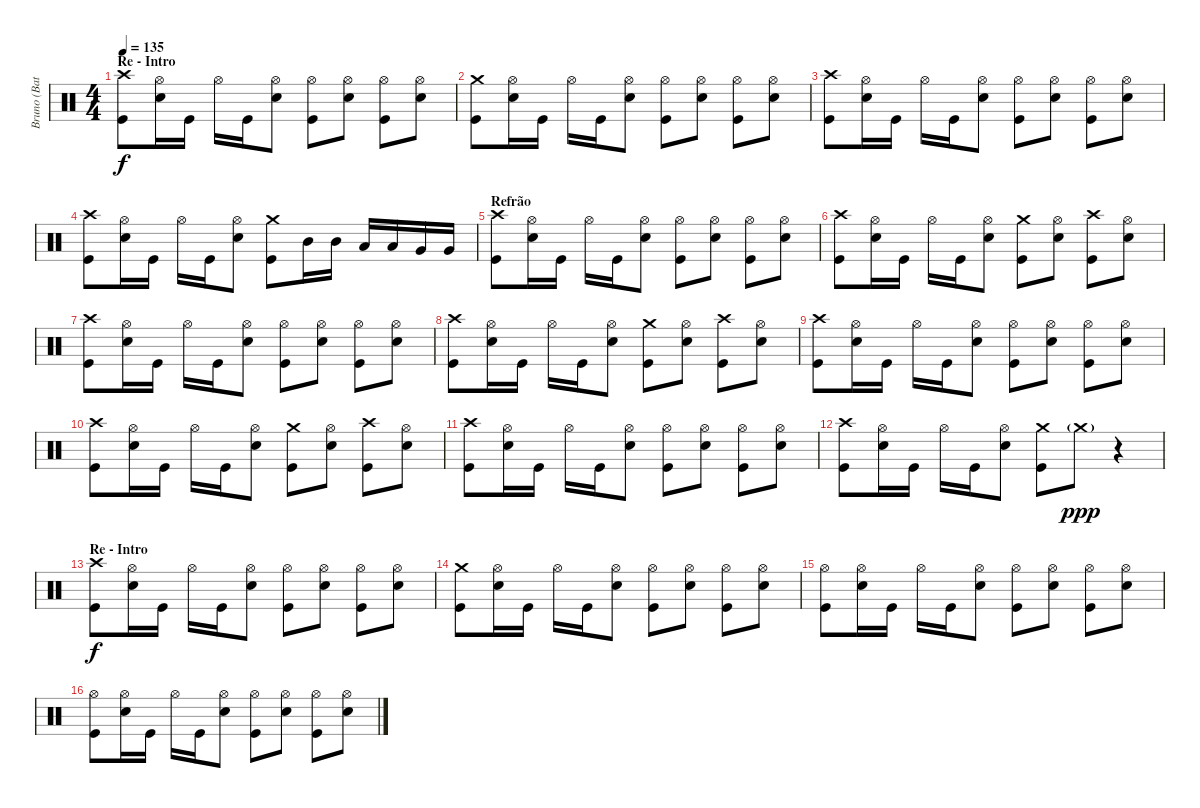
\track ("Bruno (Bateria)" "Bruno (Bat") {instrument percussion}
\staff {score}
\articulation defaults
\ts (4 4)
\section ("" "Re - Intro")
\tempo 135
\clef neutral
\ks c
("Crash high (hit)" "Kick (hit)").8{dy f} ("Hi-Hat (open)" "Electric Snare (hit)").16 "Kick (hit)".16 "Hi-Hat (open)".16 "Kick (hit)".16 ("Hi-Hat (open)" "Electric Snare (hit)").8 ("Hi-Hat (open)" "Kick (hit)").8 ("Hi-Hat (open)" "Electric Snare (hit)").8 ("Hi-Hat (open)" "Kick (hit)").8 ("Hi-Hat (open)" "Electric Snare (hit)").8 |
("Crash medium (hit)" "Kick (hit)").8 ("Hi-Hat (open)" "Electric Snare (hit)").16 "Kick (hit)".16 "Hi-Hat (open)".16 "Kick (hit)".16 ("Hi-Hat (open)" "Electric Snare (hit)").8 ("Hi-Hat (open)" "Kick (hit)").8 ("Hi-Hat (open)" "Electric Snare (hit)").8 ("Hi-Hat (open)" "Kick (hit)").8 ("Hi-Hat (open)" "Electric Snare (hit)").8 |
("Crash high (hit)" "Kick (hit)").8 ("Hi-Hat (open)" "Electric Snare (hit)").16 "Kick (hit)".16 "Hi-Hat (open)".16 "Kick (hit)".16 ("Hi-Hat (open)" "Electric Snare (hit)").8 ("Hi-Hat (open)" "Kick (hit)").8 ("Hi-Hat (open)" "Electric Snare (hit)").8 ("Hi-Hat (open)" "Kick (hit)").8 ("Hi-Hat (open)" "Electric Snare (hit)").8 |
("Crash high (hit)" "Kick (hit)").8 ("Hi-Hat (open)" "Electric Snare (hit)").16 "Kick (hit)".16 "Hi-Hat (open)".16 "Kick (hit)".16 ("Hi-Hat (open)" "Electric Snare (hit)").8 ("Crash medium (hit)" "Kick (hit)").8 "Mid Tom (hit)".16 "Mid Tom (hit)".16 "Low Tom (hit)".16 "Low Tom (hit)".16 "Very Low Tom (hit)".16 "Very Low Tom (hit)".16 |
\section ("" "Refrão")
("Crash high (hit)" "Kick (hit)").8 ("Hi-Hat (open)" "Electric Snare (hit)").16 "Kick (hit)".16 "Hi-Hat (open)".16 "Kick (hit)".16 ("Hi-Hat (open)" "Electric Snare (hit)").8 ("Hi-Hat (open)" "Kick (hit)").8 ("Hi-Hat (open)" "Electric Snare (hit)").8 ("Hi-Hat (open)" "Kick (hit)").8 ("Hi-Hat (open)" "Electric Snare (hit)").8 |
("Crash high (hit)" "Kick (hit)").8 ("Hi-Hat (open)" "Electric Snare (hit)").16 "Kick (hit)".16 "Hi-Hat (open)".16 "Kick (hit)".16 ("Hi-Hat (open)" "Electric Snare (hit)").8 ("Crash medium (hit)" "Kick (hit)").8 ("Hi-Hat (open)" "Electric Snare (hit)").8 ("Crash high (hit)" "Kick (hit)").8 ("Hi-Hat (open)" "Electric Snare (hit)").8 |
("Crash high (hit)" "Kick (hit)").8 ("Hi-Hat (open)" "Electric Snare (hit)").16 "Kick (hit)".16 "Hi-Hat (open)".16 "Kick (hit)".16 ("Hi-Hat (open)" "Electric Snare (hit)").8 ("Hi-Hat (open)" "Kick (hit)").8 ("Hi-Hat (open)" "Electric Snare (hit)").8 ("Hi-Hat (open)" "Kick (hit)").8 ("Hi-Hat (open)" "Electric Snare (hit)").8 |
("Crash high (hit)" "Kick (hit)").8 ("Hi-Hat (open)" "Electric Snare (hit)").16 "Kick (hit)".16 "Hi-Hat (open)".16 "Kick (hit)".16 ("Hi-Hat (open)" "Electric Snare (hit)").8 ("Crash medium (hit)" "Kick (hit)").8 ("Hi-Hat (open)" "Electric Snare (hit)").8 ("Crash high (hit)" "Kick (hit)").8 ("Hi-Hat (open)" "Electric Snare (hit)").8 |
("Crash high (hit)" "Kick (hit)").8 ("Hi-Hat (open)" "Electric Snare (hit)").16 "Kick (hit)".16 "Hi-Hat (open)".16 "Kick (hit)".16 ("Hi-Hat (open)" "Electric Snare (hit)").8 ("Hi-Hat (open)" "Kick (hit)").8 ("Hi-Hat (open)" "Electric Snare (hit)").8 ("Hi-Hat (open)" "Kick (hit)").8 ("Hi-Hat (open)" "Electric Snare (hit)").8 |
("Crash high (hit)" "Kick (hit)").8 ("Hi-Hat (open)" "Electric Snare (hit)").16 "Kick (hit)".16 "Hi-Hat (open)".16 "Kick (hit)".16 ("Hi-Hat (open)" "Electric Snare (hit)").8 ("Crash medium (hit)" "Kick (hit)").8 ("Hi-Hat (open)" "Electric Snare (hit)").8 ("Crash high (hit)" "Kick (hit)").8 ("Hi-Hat (open)" "Electric Snare (hit)").8 |
("Crash high (hit)" "Kick (hit)").8 ("Hi-Hat (open)" "Electric Snare (hit)").16 "Kick (hit)".16 "Hi-Hat (open)".16 "Kick (hit)".16 ("Hi-Hat (open)" "Electric Snare (hit)").8 ("Hi-Hat (open)" "Kick (hit)").8 ("Hi-Hat (open)" "Electric Snare (hit)").8 ("Hi-Hat (open)" "Kick (hit)").8 ("Hi-Hat (open)" "Electric Snare (hit)").8 |
("Crash high (hit)" "Kick (hit)").8 ("Hi-Hat (open)" "Electric Snare (hit)").16 "Kick (hit)".16 "Hi-Hat (open)".16 "Kick (hit)".16 ("Hi-Hat (open)" "Electric Snare (hit)").8 ("Crash medium (hit)" "Kick (hit)").8 "Crash medium (hit)"{g}.8{dy ppp} r.4 |
\section ("" "Re - Intro")
("Crash high (hit)" "Kick (hit)").8{dy f} ("Hi-Hat (open)" "Electric Snare (hit)").16 "Kick (hit)".16 "Hi-Hat (open)".16 "Kick (hit)".16 ("Hi-Hat (open)" "Electric Snare (hit)").8 ("Hi-Hat (open)" "Kick (hit)").8 ("Hi-Hat (open)" "Electric Snare (hit)").8 ("Hi-Hat (open)" "Kick (hit)").8 ("Hi-Hat (open)" "Electric Snare (hit)").8 |
("Crash medium (hit)" "Kick (hit)").8 ("Hi-Hat (open)" "Electric Snare (hit)").16 "Kick (hit)".16 "Hi-Hat (open)".16 "Kick (hit)".16 ("Hi-Hat (open)" "Electric Snare (hit)").8 ("Hi-Hat (open)" "Kick (hit)").8 ("Hi-Hat (open)" "Electric Snare (hit)").8 ("Hi-Hat (open)" "Kick (hit)").8 ("Hi-Hat (open)" "Electric Snare (hit)").8 |
("Hi-Hat (open)" "Kick (hit)").8 ("Hi-Hat (open)" "Electric Snare (hit)").16 "Kick (hit)".16 "Hi-Hat (open)".16 "Kick (hit)".16 ("Hi-Hat (open)" "Electric Snare (hit)").8 ("Hi-Hat (open)" "Kick (hit)").8 ("Hi-Hat (open)" "Electric Snare (hit)").8 ("Hi-Hat (open)" "Kick (hit)").8 ("Hi-Hat (open)" "Electric Snare (hit)").8 |
("Hi-Hat (open)" "Kick (hit)").8 ("Hi-Hat (open)" "Electric Snare (hit)").16 "Kick (hit)".16 "Hi-Hat (open)".16 "Kick (hit)".16 ("Hi-Hat (open)" "Electric Snare (hit)").8 ("Hi-Hat (open)" "Kick (hit)").8 ("Hi-Hat (open)" "Electric Snare (hit)").8 ("Hi-Hat (open)" "Kick (hit)").8 ("Hi-Hat (open)" "Electric Snare (hit)").8
